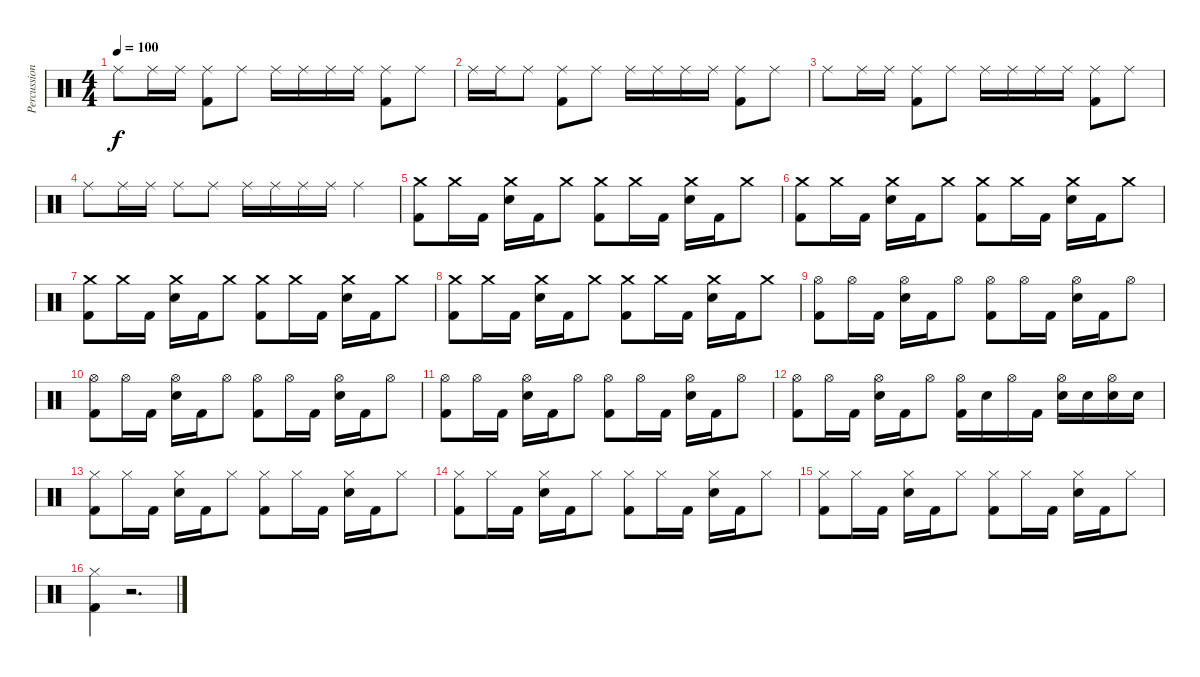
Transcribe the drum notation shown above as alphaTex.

\track ("Percussions" "Percussion") {instrument percussion}
\staff {score}
\articulation defaults
\ts (4 4)
\tempo 100
\clef neutral
\ks c "Ride (middle)".8{dy f} "Ride (middle)".16 "Ride (middle)".16
("Ride (middle)" "Kick (hit) 2").8 "Ride (middle)".8 "Ride (middle)".16 "Ride (middle)".16 "Ride (middle)".16 "Ride (middle)".16 ("Ride (middle)" "Kick (hit) 2").8 "Ride (middle)".8 |
"Ride (middle)".16 "Ride (middle)".16 "Ride (middle)".8 ("Ride (middle)" "Kick (hit) 2").8 "Ride (middle)".8 "Ride (middle)".16 "Ride (middle)".16 "Ride (middle)".16 "Ride (middle)".16 ("Ride (middle)" "Kick (hit) 2").8 "Ride (middle)".8 |
"Ride (middle)".8 "Ride (middle)".16 "Ride (middle)".16 ("Ride (middle)" "Kick (hit) 2").8 "Ride (middle)".8 "Ride (middle)".16 "Ride (middle)".16 "Ride (middle)".16 "Ride (middle)".16 ("Ride (middle)" "Kick (hit) 2").8 "Ride (middle)".8 |
"Ride (middle)".8 "Ride (middle)".16 "Ride (middle)".16 "Ride (middle)".8 "Ride (middle)".8 "Ride (middle)".16 "Ride (middle)".16 "Ride (middle)".16 "Ride (middle)".16 "Ride (middle)".4 |
("Crash medium (hit)" "Kick (hit) 2").8 "Crash medium (hit)".16 "Kick (hit) 2".16 ("Electric Snare (hit)" "Crash medium (hit)").16 "Kick (hit) 2".16 "Crash medium (hit)".8 ("Crash medium (hit)" "Kick (hit) 2").8 "Crash medium (hit)".16 "Kick (hit) 2".16 ("Electric Snare (hit)" "Crash medium (hit)").16 "Kick (hit) 2".16 "Crash medium (hit)".8 |
("Crash medium (hit)" "Kick (hit) 2").8 "Crash medium (hit)".16 "Kick (hit) 2".16 ("Electric Snare (hit)" "Crash medium (hit)").16 "Kick (hit) 2".16 "Crash medium (hit)".8 ("Crash medium (hit)" "Kick (hit) 2").8 "Crash medium (hit)".16 "Kick (hit) 2".16 ("Electric Snare (hit)" "Crash medium (hit)").16 "Kick (hit) 2".16 "Crash medium (hit)".8 |
("Crash medium (hit)" "Kick (hit) 2").8 "Crash medium (hit)".16 "Kick (hit) 2".16 ("Electric Snare (hit)" "Crash medium (hit)").16 "Kick (hit) 2".16 "Crash medium (hit)".8 ("Crash medium (hit)" "Kick (hit) 2").8 "Crash medium (hit)".16 "Kick (hit) 2".16 ("Electric Snare (hit)" "Crash medium (hit)").16 "Kick (hit) 2".16 "Crash medium (hit)".8 |
("Crash medium (hit)" "Kick (hit) 2").8 "Crash medium (hit)".16 "Kick (hit) 2".16 ("Electric Snare (hit)" "Crash medium (hit)").16 "Kick (hit) 2".16 "Crash medium (hit)".8 ("Crash medium (hit)" "Kick (hit) 2").8 "Crash medium (hit)".16 "Kick (hit) 2".16 ("Electric Snare (hit)" "Crash medium (hit)").16 "Kick (hit) 2".16 "Crash medium (hit)".8 |
("Hi-Hat (open)" "Kick (hit) 2").8 "Hi-Hat (open)".16 "Kick (hit) 2".16 ("Electric Snare (hit)" "Hi-Hat (open)").16 "Kick (hit) 2".16 "Hi-Hat (open)".8 ("Hi-Hat (open)" "Kick (hit) 2").8 "Hi-Hat (open)".16 "Kick (hit) 2".16 ("Electric Snare (hit)" "Hi-Hat (open)").16 "Kick (hit) 2".16 "Hi-Hat (open)".8 |
("Hi-Hat (open)" "Kick (hit) 2").8 "Hi-Hat (open)".16 "Kick (hit) 2".16 ("Electric Snare (hit)" "Hi-Hat (open)").16 "Kick (hit) 2".16 "Hi-Hat (open)".8 ("Hi-Hat (open)" "Kick (hit) 2").8 "Hi-Hat (open)".16 "Kick (hit) 2".16 ("Electric Snare (hit)" "Hi-Hat (open)").16 "Kick (hit) 2".16 "Hi-Hat (open)".8 |
("Hi-Hat (open)" "Kick (hit) 2").8 "Hi-Hat (open)".16 "Kick (hit) 2".16 ("Electric Snare (hit)" "Hi-Hat (open)").16 "Kick (hit) 2".16 "Hi-Hat (open)".8 ("Hi-Hat (open)" "Kick (hit) 2").8 "Hi-Hat (open)".16 "Kick (hit) 2".16 ("Electric Snare (hit)" "Hi-Hat (open)").16 "Kick (hit) 2".16 "Hi-Hat (open)".8 |
("Hi-Hat (open)" "Kick (hit) 2").8 "Hi-Hat (open)".16 "Kick (hit) 2".16 ("Electric Snare (hit)" "Hi-Hat (open)").16 "Kick (hit) 2".16 "Hi-Hat (open)".8 ("Hi-Hat (open)" "Kick (hit) 2").16 "Electric Snare (hit)".16 "Hi-Hat (open)".16 "Kick (hit) 2".16 ("Electric Snare (hit)" "Hi-Hat (open)").16 "Electric Snare (hit)".16 ("Electric Snare (hit)" "Hi-Hat (open)").16 "Electric Snare (hit)".16 |
("Hi-Hat (closed)" "Kick (hit) 2").8 "Hi-Hat (closed)".16 "Kick (hit) 2".16 ("Electric Snare (hit)" "Hi-Hat (closed)").16 "Kick (hit) 2".16 "Hi-Hat (closed)".8 ("Hi-Hat (closed)" "Kick (hit) 2").8 "Hi-Hat (closed)".16 "Kick (hit) 2".16 ("Electric Snare (hit)" "Hi-Hat (closed)").16 "Kick (hit) 2".16 "Hi-Hat (closed)".8 |
("Hi-Hat (closed)" "Kick (hit) 2").8 "Hi-Hat (closed)".16 "Kick (hit) 2".16 ("Electric Snare (hit)" "Hi-Hat (closed)").16 "Kick (hit) 2".16 "Hi-Hat (closed)".8 ("Hi-Hat (closed)" "Kick (hit) 2").8 "Hi-Hat (closed)".16 "Kick (hit) 2".16 ("Electric Snare (hit)" "Hi-Hat (closed)").16 "Kick (hit) 2".16 "Hi-Hat (closed)".8 |
("Hi-Hat (closed)" "Kick (hit) 2").8 "Hi-Hat (closed)".16 "Kick (hit) 2".16 ("Electric Snare (hit)" "Hi-Hat (closed)").16 "Kick (hit) 2".16 "Hi-Hat (closed)".8 ("Hi-Hat (closed)" "Kick (hit) 2").8 "Hi-Hat (closed)".16 "Kick (hit) 2".16 ("Electric Snare (hit)" "Hi-Hat (closed)").16 "Kick (hit) 2".16 "Hi-Hat (closed)".8 |
("Hi-Hat (closed)" "Kick (hit) 2").4 r.2{d}
